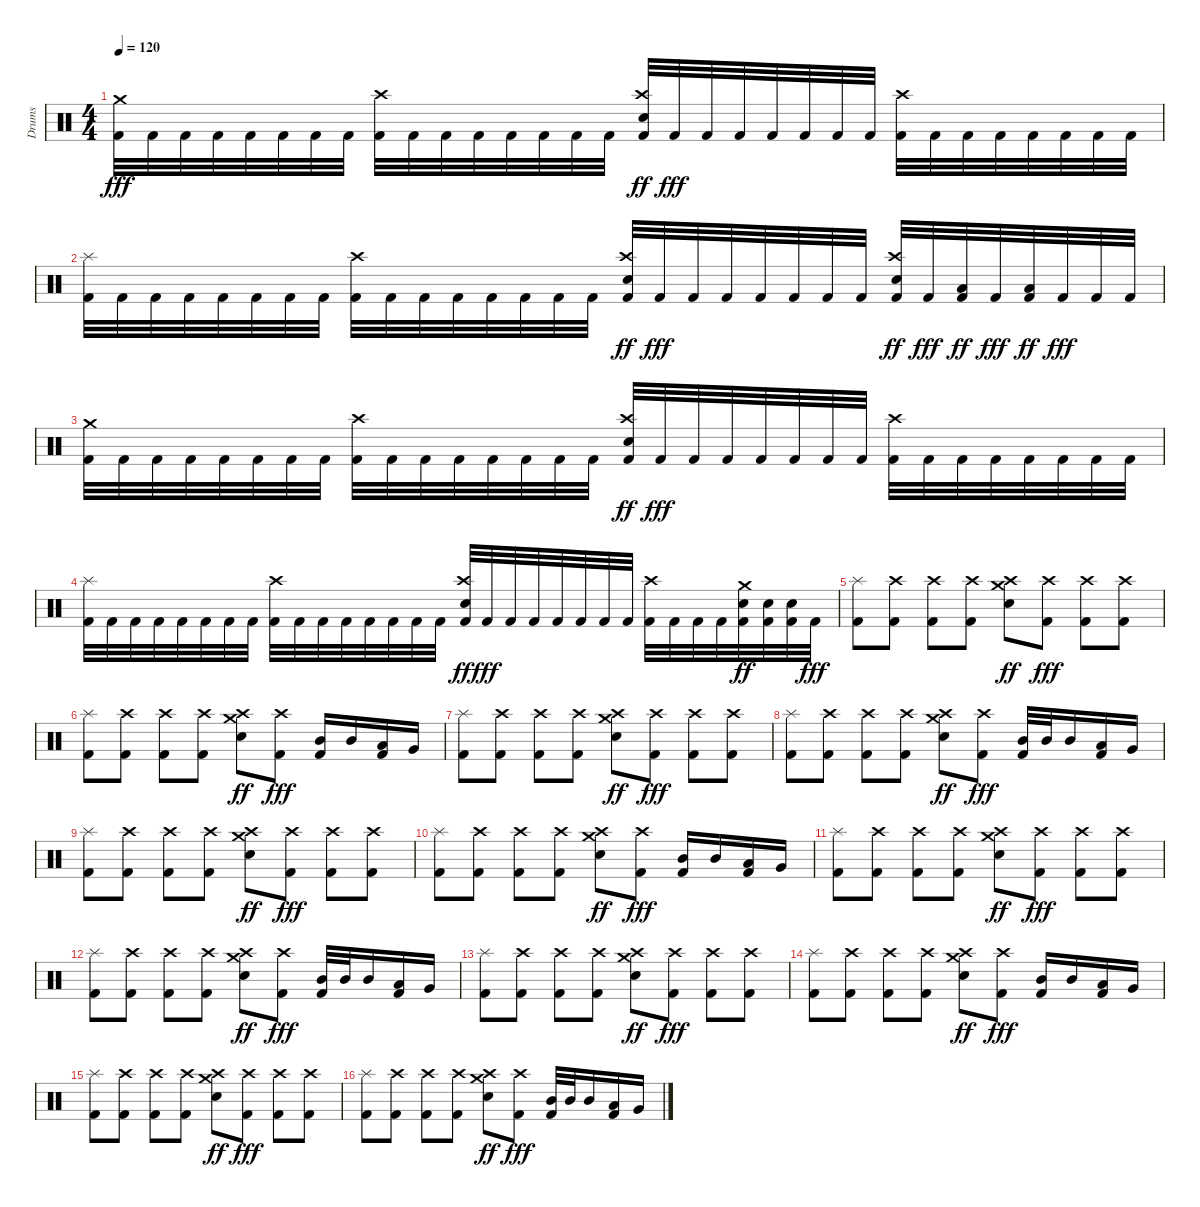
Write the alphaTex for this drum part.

\track ("Drums" "Drums") {instrument percussion}
\staff {score}
\articulation defaults
\ts (4 4)
\tempo 120
\clef neutral
\ks c
("Kick (hit) 2" "Crash medium (hit)").32{dy fff} "Kick (hit) 2".32 "Kick (hit) 2".32 "Kick (hit) 2".32 "Kick (hit) 2".32 "Kick (hit) 2".32 "Kick (hit) 2".32 "Kick (hit) 2".32 ("Kick (hit) 2" "Crash high (hit)").32 "Kick (hit) 2".32 "Kick (hit) 2".32 "Kick (hit) 2".32 "Kick (hit) 2".32 "Kick (hit) 2".32 "Kick (hit) 2".32 "Kick (hit) 2".32 ("Kick (hit) 2" "Snare (hit) 2" "Crash high (hit)").32{dy ff} "Kick (hit) 2".32{dy fff} "Kick (hit) 2".32 "Kick (hit) 2".32 "Kick (hit) 2".32 "Kick (hit) 2".32 "Kick (hit) 2".32 "Kick (hit) 2".32 ("Kick (hit) 2" "Crash high (hit)").32 "Kick (hit) 2".32 "Kick (hit) 2".32 "Kick (hit) 2".32 "Kick (hit) 2".32 "Kick (hit) 2".32 "Kick (hit) 2".32 "Kick (hit) 2".32 |
("Kick (hit) 2" "Splash (hit)").32 "Kick (hit) 2".32 "Kick (hit) 2".32 "Kick (hit) 2".32 "Kick (hit) 2".32 "Kick (hit) 2".32 "Kick (hit) 2".32 "Kick (hit) 2".32 ("Kick (hit) 2" "Crash high (hit)").32 "Kick (hit) 2".32 "Kick (hit) 2".32 "Kick (hit) 2".32 "Kick (hit) 2".32 "Kick (hit) 2".32 "Kick (hit) 2".32 "Kick (hit) 2".32 ("Kick (hit) 2" "Snare (hit) 2" "Crash high (hit)").32{dy ff} "Kick (hit) 2".32{dy fff} "Kick (hit) 2".32 "Kick (hit) 2".32 "Kick (hit) 2".32 "Kick (hit) 2".32 "Kick (hit) 2".32 "Kick (hit) 2".32 ("Kick (hit) 2" "Snare (hit) 2" "Crash high (hit)").32{dy ff} "Kick (hit) 2".32{dy fff} ("Kick (hit) 2" "Low Tom (hit)").32{dy ff} "Kick (hit) 2".32{dy fff} ("Kick (hit) 2" "Low Tom (hit)").32{dy ff} "Kick (hit) 2".32{dy fff} "Kick (hit) 2".32 "Kick (hit) 2".32 |
("Kick (hit) 2" "Crash medium (hit)").32 "Kick (hit) 2".32 "Kick (hit) 2".32 "Kick (hit) 2".32 "Kick (hit) 2".32 "Kick (hit) 2".32 "Kick (hit) 2".32 "Kick (hit) 2".32 ("Kick (hit) 2" "Crash high (hit)").32 "Kick (hit) 2".32 "Kick (hit) 2".32 "Kick (hit) 2".32 "Kick (hit) 2".32 "Kick (hit) 2".32 "Kick (hit) 2".32 "Kick (hit) 2".32 ("Kick (hit) 2" "Snare (hit) 2" "Crash high (hit)").32{dy ff} "Kick (hit) 2".32{dy fff} "Kick (hit) 2".32 "Kick (hit) 2".32 "Kick (hit) 2".32 "Kick (hit) 2".32 "Kick (hit) 2".32 "Kick (hit) 2".32 ("Kick (hit) 2" "Crash high (hit)").32 "Kick (hit) 2".32 "Kick (hit) 2".32 "Kick (hit) 2".32 "Kick (hit) 2".32 "Kick (hit) 2".32 "Kick (hit) 2".32 "Kick (hit) 2".32 |
("Kick (hit) 2" "Splash (hit)").32 "Kick (hit) 2".32 "Kick (hit) 2".32 "Kick (hit) 2".32 "Kick (hit) 2".32 "Kick (hit) 2".32 "Kick (hit) 2".32 "Kick (hit) 2".32 ("Kick (hit) 2" "Crash high (hit)").32 "Kick (hit) 2".32 "Kick (hit) 2".32 "Kick (hit) 2".32 "Kick (hit) 2".32 "Kick (hit) 2".32 "Kick (hit) 2".32 "Kick (hit) 2".32 ("Kick (hit) 2" "Snare (hit) 2" "Crash high (hit)").32{dy ff} "Kick (hit) 2".32{dy fff} "Kick (hit) 2".32 "Kick (hit) 2".32 "Kick (hit) 2".32 "Kick (hit) 2".32 "Kick (hit) 2".32 "Kick (hit) 2".32 ("Kick (hit) 2" "Crash high (hit)").32 "Kick (hit) 2".32 "Kick (hit) 2".32 "Kick (hit) 2".32 ("Kick (hit) 2" "Snare (hit) 2" "Crash medium (hit)").32{dy ff} ("Kick (hit) 2" "Snare (hit) 2").32 ("Kick (hit) 2" "Snare (hit) 2").32 "Kick (hit) 2".32{dy fff} |
("Kick (hit) 2" "Splash (hit)").8 ("Kick (hit) 2" "Crash high (hit)").8 ("Kick (hit) 2" "Crash high (hit)").8 ("Kick (hit) 2" "Crash high (hit)").8 ("Snare (hit) 2" "Crash high (hit)" "Crash medium (hit)").8{dy ff} ("Kick (hit) 2" "Crash high (hit)").8{dy fff} ("Kick (hit) 2" "Crash high (hit)").8 ("Kick (hit) 2" "Crash high (hit)").8 |
("Kick (hit) 2" "Splash (hit)").8 ("Kick (hit) 2" "Crash high (hit)").8 ("Kick (hit) 2" "Crash high (hit)").8 ("Kick (hit) 2" "Crash high (hit)").8 ("Snare (hit) 2" "Crash high (hit)" "Crash medium (hit)").8{dy ff} ("Kick (hit) 2" "Crash high (hit)").8{dy fff} ("Kick (hit) 2" "Mid Tom (hit)").16 "Mid Tom (hit)".16 ("Kick (hit) 2" "Low Tom (hit)").16 "Very Low Tom (hit)".16 |
("Kick (hit) 2" "Splash (hit)").8 ("Kick (hit) 2" "Crash high (hit)").8 ("Kick (hit) 2" "Crash high (hit)").8 ("Kick (hit) 2" "Crash high (hit)").8 ("Snare (hit) 2" "Crash high (hit)" "Crash medium (hit)").8{dy ff} ("Kick (hit) 2" "Crash high (hit)").8{dy fff} ("Kick (hit) 2" "Crash high (hit)").8 ("Kick (hit) 2" "Crash high (hit)").8 |
("Kick (hit) 2" "Splash (hit)").8 ("Kick (hit) 2" "Crash high (hit)").8 ("Kick (hit) 2" "Crash high (hit)").8 ("Kick (hit) 2" "Crash high (hit)").8 ("Snare (hit) 2" "Crash high (hit)" "Crash medium (hit)").8{dy ff} ("Kick (hit) 2" "Crash high (hit)").8{dy fff} ("Kick (hit) 2" "Mid Tom (hit)").32 "Mid Tom (hit)".32 "Mid Tom (hit)".16 ("Kick (hit) 2" "Low Tom (hit)").16 "Very Low Tom (hit)".16 |
("Kick (hit) 2" "Splash (hit)").8 ("Kick (hit) 2" "Crash high (hit)").8 ("Kick (hit) 2" "Crash high (hit)").8 ("Kick (hit) 2" "Crash high (hit)").8 ("Snare (hit) 2" "Crash high (hit)" "Crash medium (hit)").8{dy ff} ("Kick (hit) 2" "Crash high (hit)").8{dy fff} ("Kick (hit) 2" "Crash high (hit)").8 ("Kick (hit) 2" "Crash high (hit)").8 |
("Kick (hit) 2" "Splash (hit)").8 ("Kick (hit) 2" "Crash high (hit)").8 ("Kick (hit) 2" "Crash high (hit)").8 ("Kick (hit) 2" "Crash high (hit)").8 ("Snare (hit) 2" "Crash high (hit)" "Crash medium (hit)").8{dy ff} ("Kick (hit) 2" "Crash high (hit)").8{dy fff} ("Kick (hit) 2" "Mid Tom (hit)").16 "Mid Tom (hit)".16 ("Kick (hit) 2" "Low Tom (hit)").16 "Very Low Tom (hit)".16 |
("Kick (hit) 2" "Splash (hit)").8 ("Kick (hit) 2" "Crash high (hit)").8 ("Kick (hit) 2" "Crash high (hit)").8 ("Kick (hit) 2" "Crash high (hit)").8 ("Snare (hit) 2" "Crash high (hit)" "Crash medium (hit)").8{dy ff} ("Kick (hit) 2" "Crash high (hit)").8{dy fff} ("Kick (hit) 2" "Crash high (hit)").8 ("Kick (hit) 2" "Crash high (hit)").8 |
("Kick (hit) 2" "Splash (hit)").8 ("Kick (hit) 2" "Crash high (hit)").8 ("Kick (hit) 2" "Crash high (hit)").8 ("Kick (hit) 2" "Crash high (hit)").8 ("Snare (hit) 2" "Crash high (hit)" "Crash medium (hit)").8{dy ff} ("Kick (hit) 2" "Crash high (hit)").8{dy fff} ("Kick (hit) 2" "Mid Tom (hit)").32 "Mid Tom (hit)".32 "Mid Tom (hit)".16 ("Kick (hit) 2" "Low Tom (hit)").16 "Very Low Tom (hit)".16 |
("Kick (hit) 2" "Splash (hit)").8 ("Kick (hit) 2" "Crash high (hit)").8 ("Kick (hit) 2" "Crash high (hit)").8 ("Kick (hit) 2" "Crash high (hit)").8 ("Snare (hit) 2" "Crash high (hit)" "Crash medium (hit)").8{dy ff} ("Kick (hit) 2" "Crash high (hit)").8{dy fff} ("Kick (hit) 2" "Crash high (hit)").8 ("Kick (hit) 2" "Crash high (hit)").8 |
("Kick (hit) 2" "Splash (hit)").8 ("Kick (hit) 2" "Crash high (hit)").8 ("Kick (hit) 2" "Crash high (hit)").8 ("Kick (hit) 2" "Crash high (hit)").8 ("Snare (hit) 2" "Crash high (hit)" "Crash medium (hit)").8{dy ff} ("Kick (hit) 2" "Crash high (hit)").8{dy fff} ("Kick (hit) 2" "Mid Tom (hit)").16 "Mid Tom (hit)".16 ("Kick (hit) 2" "Low Tom (hit)").16 "Very Low Tom (hit)".16 |
("Kick (hit) 2" "Splash (hit)").8 ("Kick (hit) 2" "Crash high (hit)").8 ("Kick (hit) 2" "Crash high (hit)").8 ("Kick (hit) 2" "Crash high (hit)").8 ("Snare (hit) 2" "Crash high (hit)" "Crash medium (hit)").8{dy ff} ("Kick (hit) 2" "Crash high (hit)").8{dy fff} ("Kick (hit) 2" "Crash high (hit)").8 ("Kick (hit) 2" "Crash high (hit)").8 |
("Kick (hit) 2" "Splash (hit)").8 ("Kick (hit) 2" "Crash high (hit)").8 ("Kick (hit) 2" "Crash high (hit)").8 ("Kick (hit) 2" "Crash high (hit)").8 ("Snare (hit) 2" "Crash high (hit)" "Crash medium (hit)").8{dy ff} ("Kick (hit) 2" "Crash high (hit)").8{dy fff} ("Kick (hit) 2" "Mid Tom (hit)").32 "Mid Tom (hit)".32 "Mid Tom (hit)".16 ("Kick (hit) 2" "Low Tom (hit)").16 "Very Low Tom (hit)".16
